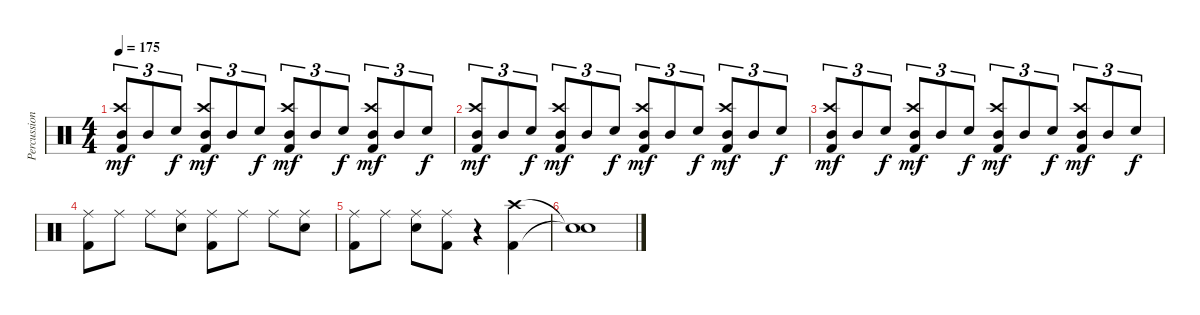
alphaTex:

\track ("Percussion" "Percussion") {instrument percussion}
\staff {score}
\articulation defaults
\ts (4 4)
\tempo 175
\clef neutral
\ks c
("Mid Tom (hit)" "Crash high (hit)" "Kick (hit) 2").8{tu (3 2) dy mf} "Mid Tom (hit)".8{tu (3 2)} "Snare (hit) 2".8{tu (3 2) dy f} ("Mid Tom (hit)" "Crash high (hit)" "Kick (hit) 2").8{tu (3 2) dy mf} "Mid Tom (hit)".8{tu (3 2)} "Snare (hit) 2".8{tu (3 2) dy f} ("Mid Tom (hit)" "Crash high (hit)" "Kick (hit) 2").8{tu (3 2) dy mf} "Mid Tom (hit)".8{tu (3 2)} "Snare (hit) 2".8{tu (3 2) dy f} ("Mid Tom (hit)" "Crash high (hit)" "Kick (hit) 2").8{tu (3 2) dy mf} "Mid Tom (hit)".8{tu (3 2)} "Snare (hit) 2".8{tu (3 2) dy f} |
("Mid Tom (hit)" "Crash high (hit)" "Kick (hit) 2").8{tu (3 2) dy mf} "Mid Tom (hit)".8{tu (3 2)} "Snare (hit) 2".8{tu (3 2) dy f} ("Mid Tom (hit)" "Crash high (hit)" "Kick (hit) 2").8{tu (3 2) dy mf} "Mid Tom (hit)".8{tu (3 2)} "Snare (hit) 2".8{tu (3 2) dy f} ("Mid Tom (hit)" "Crash high (hit)" "Kick (hit) 2").8{tu (3 2) dy mf} "Mid Tom (hit)".8{tu (3 2)} "Snare (hit) 2".8{tu (3 2) dy f} ("Mid Tom (hit)" "Crash high (hit)" "Kick (hit) 2").8{tu (3 2) dy mf} "Mid Tom (hit)".8{tu (3 2)} "Snare (hit) 2".8{tu (3 2) dy f} |
("Mid Tom (hit)" "Crash high (hit)" "Kick (hit) 2").8{tu (3 2) dy mf} "Mid Tom (hit)".8{tu (3 2)} "Snare (hit) 2".8{tu (3 2) dy f} ("Mid Tom (hit)" "Crash high (hit)" "Kick (hit) 2").8{tu (3 2) dy mf} "Mid Tom (hit)".8{tu (3 2)} "Snare (hit) 2".8{tu (3 2) dy f} ("Mid Tom (hit)" "Crash high (hit)" "Kick (hit) 2").8{tu (3 2) dy mf} "Mid Tom (hit)".8{tu (3 2)} "Snare (hit) 2".8{tu (3 2) dy f} ("Mid Tom (hit)" "Crash high (hit)" "Kick (hit) 2").8{tu (3 2) dy mf} "Mid Tom (hit)".8{tu (3 2)} "Snare (hit) 2".8{tu (3 2) dy f} |
("Ride (middle)" "Kick (hit) 2").8 "Ride (middle)".8 "Ride (middle)".8 ("Ride (middle)" "Snare (hit) 2").8 ("Ride (middle)" "Kick (hit) 2").8 "Ride (middle)".8 "Ride (middle)".8 ("Ride (middle)" "Snare (hit) 2").8 |
("Ride (middle)" "Kick (hit) 2").8 "Ride (middle)".8 ("Ride (middle)" "Snare (hit) 2").8 ("Ride (middle)" "Kick (hit) 2").8 r.4 ("Crash high (hit)" "Kick (hit) 2").4 |
("Snare (hit)"{t} "Snare (hit)"{t}).1
